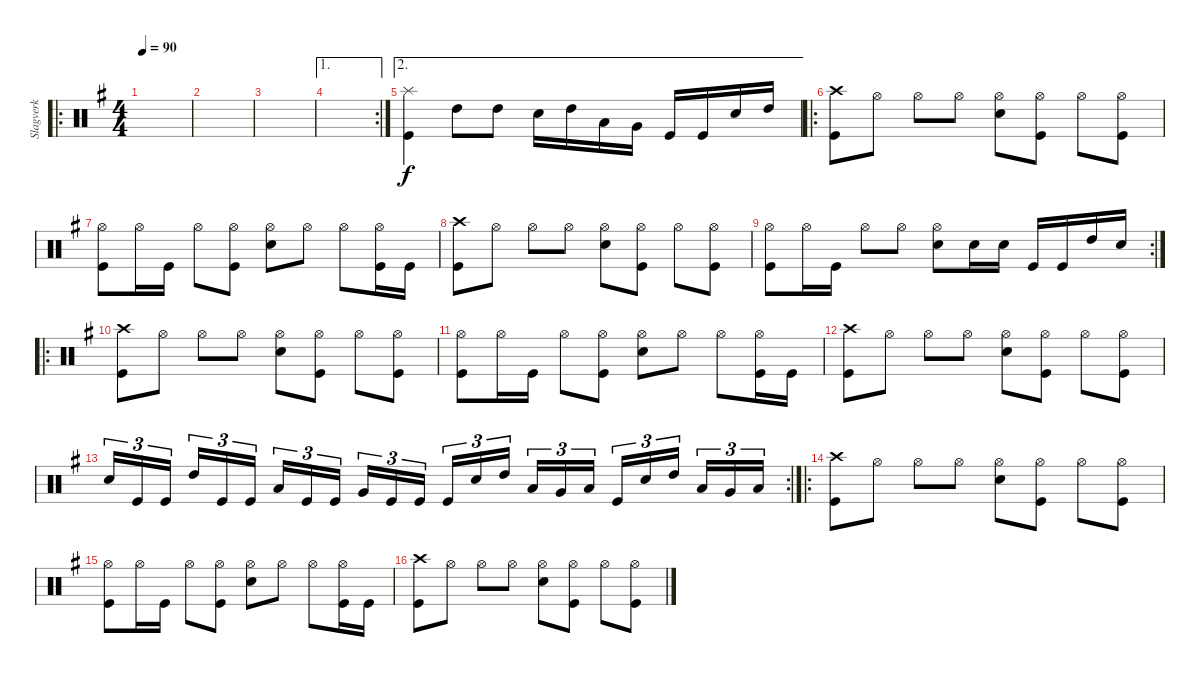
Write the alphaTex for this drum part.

\track ("Slagverk" "Slagverk") {instrument percussion}
\staff {score}
\articulation defaults
\ro
\ts (4 4)
\tempo 90
\clef neutral
\ks g
|
|
|
\ae 1
\rc 2
|
\ae 2
("Splash (hit)" "Kick (hit)").4 "High Tom (hit)".8 "High Tom (hit)".8 "Electric Snare (hit)".16 "High Tom (hit)".16 "Low Tom (hit)".16 "Very Low Tom (hit)".16 "Kick (hit)".16 "Kick (hit)".16 "Electric Snare (hit)".16 "High Tom (hit)".16 |
\ro
("Crash high (hit)" "Kick (hit)").8 "Hi-Hat (open)".8 "Hi-Hat (open)".8 "Hi-Hat (open)".8 ("Hi-Hat (open)" "Electric Snare (hit)").8 ("Hi-Hat (open)" "Kick (hit)").8 "Hi-Hat (open)".8 ("Hi-Hat (open)" "Kick (hit)").8 |
("Hi-Hat (open)" "Kick (hit)").8 "Hi-Hat (open)".16 "Kick (hit)".16 "Hi-Hat (open)".8 ("Hi-Hat (open)" "Kick (hit)").8 ("Hi-Hat (open)" "Electric Snare (hit)").8 "Hi-Hat (open)".8 "Hi-Hat (open)".8 ("Hi-Hat (open)" "Kick (hit)").16 "Kick (hit)".16 |
("Crash high (hit)" "Kick (hit)").8 "Hi-Hat (open)".8 "Hi-Hat (open)".8 "Hi-Hat (open)".8 ("Hi-Hat (open)" "Electric Snare (hit)").8 ("Hi-Hat (open)" "Kick (hit)").8 "Hi-Hat (open)".8 ("Hi-Hat (open)" "Kick (hit)").8 |
\rc 2
("Hi-Hat (open)" "Kick (hit)").8 "Hi-Hat (open)".16 "Kick (hit)".16 "Hi-Hat (open)".8 "Hi-Hat (open)".8 ("Hi-Hat (open)" "Electric Snare (hit)").8 "Electric Snare (hit)".16 "Electric Snare (hit)".16 "Kick (hit)".16 "Kick (hit)".16 "High Tom (hit)".16 "Electric Snare (hit)".16 |
\ro
("Crash high (hit)" "Kick (hit)").8 "Hi-Hat (open)".8 "Hi-Hat (open)".8 "Hi-Hat (open)".8 ("Hi-Hat (open)" "Electric Snare (hit)").8 ("Hi-Hat (open)" "Kick (hit)").8 "Hi-Hat (open)".8 ("Hi-Hat (open)" "Kick (hit)").8 |
("Hi-Hat (open)" "Kick (hit)").8 "Hi-Hat (open)".16 "Kick (hit)".16 "Hi-Hat (open)".8 ("Hi-Hat (open)" "Kick (hit)").8 ("Hi-Hat (open)" "Electric Snare (hit)").8 "Hi-Hat (open)".8 "Hi-Hat (open)".8 ("Hi-Hat (open)" "Kick (hit)").16 "Kick (hit)".16 |
("Crash high (hit)" "Kick (hit)").8 "Hi-Hat (open)".8 "Hi-Hat (open)".8 "Hi-Hat (open)".8 ("Hi-Hat (open)" "Electric Snare (hit)").8 ("Hi-Hat (open)" "Kick (hit)").8 "Hi-Hat (open)".8 ("Hi-Hat (open)" "Kick (hit)").8 |
\rc 2 "Electric Snare (hit)".16{tu (3 2)} "Kick (hit)".16{tu (3 2)} "Kick (hit)".16{tu (3 2)} "High Tom (hit)".16{tu (3 2)} "Kick (hit)".16{tu (3 2)} "Kick (hit)".16{tu (3 2)} "Low Tom (hit)".16{tu (3 2)} "Kick (hit)".16{tu (3 2)} "Kick (hit)".16{tu (3 2)} "Very Low Tom (hit)".16{tu (3 2)} "Kick (hit)".16{tu (3 2)} "Kick (hit)".16{tu (3 2)} "Kick (hit)".16{tu (3 2)} "Electric Snare (hit)".16{tu (3 2)} "High Tom (hit)".16{tu (3 2)} "Low Tom (hit)".16{tu (3 2)} "Very Low Tom (hit)".16{tu (3 2)} "Low Floor Tom (hit)".16{tu (3 2)} "Kick (hit)".16{tu (3 2)} "Electric Snare (hit)".16{tu (3 2)} "High Tom (hit)".16{tu (3 2)} "Low Tom (hit)".16{tu (3 2)} "Very Low Tom (hit)".16{tu (3 2)} "Low Floor Tom (hit)".16{tu (3 2)}
|
\ro
("Crash high (hit)" "Kick (hit)").8 "Hi-Hat (open)".8 "Hi-Hat (open)".8 "Hi-Hat (open)".8 ("Hi-Hat (open)" "Electric Snare (hit)").8 ("Hi-Hat (open)" "Kick (hit)").8 "Hi-Hat (open)".8 ("Hi-Hat (open)" "Kick (hit)").8 |
("Hi-Hat (open)" "Kick (hit)").8 "Hi-Hat (open)".16 "Kick (hit)".16 "Hi-Hat (open)".8 ("Hi-Hat (open)" "Kick (hit)").8 ("Hi-Hat (open)" "Electric Snare (hit)").8 "Hi-Hat (open)".8 "Hi-Hat (open)".8 ("Hi-Hat (open)" "Kick (hit)").16 "Kick (hit)".16 |
("Crash high (hit)" "Kick (hit)").8 "Hi-Hat (open)".8 "Hi-Hat (open)".8 "Hi-Hat (open)".8 ("Hi-Hat (open)" "Electric Snare (hit)").8 ("Hi-Hat (open)" "Kick (hit)").8 "Hi-Hat (open)".8 ("Hi-Hat (open)" "Kick (hit)").8
